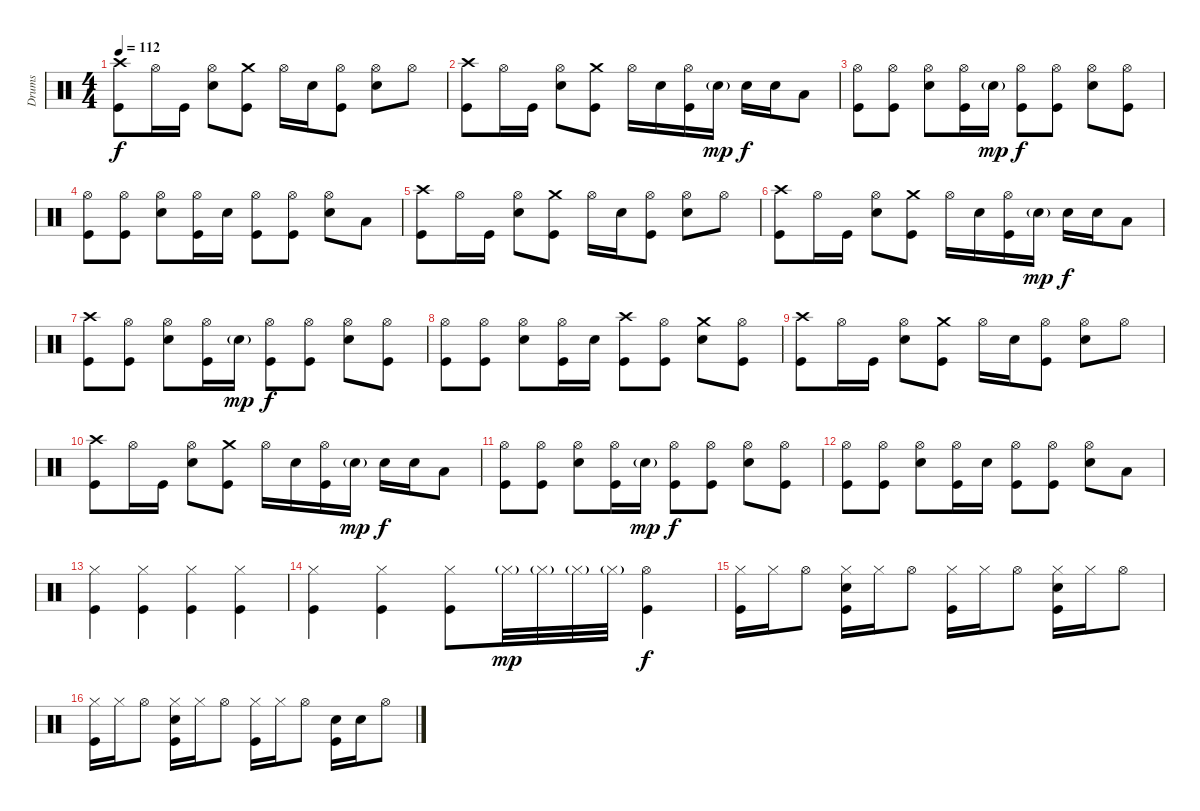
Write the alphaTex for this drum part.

\track ("Drums" "Drums") {instrument percussion}
\staff {score}
\articulation defaults
\ts (4 4)
\tempo 112
\clef neutral
\ks c
("Crash high (hit)" "Kick (hit)").8{dy f} "Hi-Hat (open)".16 "Kick (hit)".16 ("Hi-Hat (open)" "Electric Snare (hit)").8 ("Crash medium (hit)" "Kick (hit)").8 "Hi-Hat (open)".16 "Electric Snare (hit)".16 ("Hi-Hat (open)" "Kick (hit)").8 ("Hi-Hat (open)" "Electric Snare (hit)").8 "Hi-Hat (open)".8 |
("Crash high (hit)" "Kick (hit)").8 "Hi-Hat (open)".16 "Kick (hit)".16 ("Hi-Hat (open)" "Electric Snare (hit)").8 ("Crash medium (hit)" "Kick (hit)").8 "Hi-Hat (open)".16 "Electric Snare (hit)".16 ("Hi-Hat (open)" "Kick (hit)").16 "Electric Snare (hit)"{g}.16{dy mp} "Electric Snare (hit)".16{dy f} "Electric Snare (hit)".16 "Low Tom (hit)".8 |
("Hi-Hat (open)" "Kick (hit)").8 ("Hi-Hat (open)" "Kick (hit)").8 ("Hi-Hat (open)" "Electric Snare (hit)").8 ("Hi-Hat (open)" "Kick (hit)").16 "Electric Snare (hit)"{g}.16{dy mp} ("Hi-Hat (open)" "Kick (hit)").8{dy f} ("Hi-Hat (open)" "Kick (hit)").8 ("Hi-Hat (open)" "Electric Snare (hit)").8 ("Hi-Hat (open)" "Kick (hit)").8 |
("Hi-Hat (open)" "Kick (hit)").8 ("Hi-Hat (open)" "Kick (hit)").8 ("Hi-Hat (open)" "Electric Snare (hit)").8 ("Hi-Hat (open)" "Kick (hit)").16 "Electric Snare (hit)".16 ("Hi-Hat (open)" "Kick (hit)").8 ("Hi-Hat (open)" "Kick (hit)").8 ("Hi-Hat (open)" "Electric Snare (hit)").8 "Low Tom (hit)".8 |
("Crash high (hit)" "Kick (hit)").8 "Hi-Hat (open)".16 "Kick (hit)".16 ("Hi-Hat (open)" "Electric Snare (hit)").8 ("Crash medium (hit)" "Kick (hit)").8 "Hi-Hat (open)".16 "Electric Snare (hit)".16 ("Hi-Hat (open)" "Kick (hit)").8 ("Hi-Hat (open)" "Electric Snare (hit)").8 "Hi-Hat (open)".8 |
("Crash high (hit)" "Kick (hit)").8 "Hi-Hat (open)".16 "Kick (hit)".16 ("Hi-Hat (open)" "Electric Snare (hit)").8 ("Crash medium (hit)" "Kick (hit)").8 "Hi-Hat (open)".16 "Electric Snare (hit)".16 ("Hi-Hat (open)" "Kick (hit)").16 "Electric Snare (hit)"{g}.16{dy mp} "Electric Snare (hit)".16{dy f} "Electric Snare (hit)".16 "Low Tom (hit)".8 |
("Crash high (hit)" "Kick (hit)").8 ("Hi-Hat (open)" "Kick (hit)").8 ("Hi-Hat (open)" "Electric Snare (hit)").8 ("Hi-Hat (open)" "Kick (hit)").16 "Electric Snare (hit)"{g}.16{dy mp} ("Hi-Hat (open)" "Kick (hit)").8{dy f} ("Hi-Hat (open)" "Kick (hit)").8 ("Hi-Hat (open)" "Electric Snare (hit)").8 ("Hi-Hat (open)" "Kick (hit)").8 |
("Hi-Hat (open)" "Kick (hit)").8 ("Hi-Hat (open)" "Kick (hit)").8 ("Hi-Hat (open)" "Electric Snare (hit)").8 ("Hi-Hat (open)" "Kick (hit)").16 "Electric Snare (hit)".16 ("Crash high (hit)" "Kick (hit)").8 ("Hi-Hat (open)" "Kick (hit)").8 ("Crash medium (hit)" "Electric Snare (hit)").8 ("Hi-Hat (open)" "Kick (hit)").8 |
("Crash high (hit)" "Kick (hit)").8 "Hi-Hat (open)".16 "Kick (hit)".16 ("Hi-Hat (open)" "Electric Snare (hit)").8 ("Crash medium (hit)" "Kick (hit)").8 "Hi-Hat (open)".16 "Electric Snare (hit)".16 ("Hi-Hat (open)" "Kick (hit)").8 ("Hi-Hat (open)" "Electric Snare (hit)").8 "Hi-Hat (open)".8 |
("Crash high (hit)" "Kick (hit)").8 "Hi-Hat (open)".16 "Kick (hit)".16 ("Hi-Hat (open)" "Electric Snare (hit)").8 ("Crash medium (hit)" "Kick (hit)").8 "Hi-Hat (open)".16 "Electric Snare (hit)".16 ("Hi-Hat (open)" "Kick (hit)").16 "Electric Snare (hit)"{g}.16{dy mp} "Electric Snare (hit)".16{dy f} "Electric Snare (hit)".16 "Low Tom (hit)".8 |
("Hi-Hat (open)" "Kick (hit)").8 ("Hi-Hat (open)" "Kick (hit)").8 ("Hi-Hat (open)" "Electric Snare (hit)").8 ("Hi-Hat (open)" "Kick (hit)").16 "Electric Snare (hit)"{g}.16{dy mp} ("Hi-Hat (open)" "Kick (hit)").8{dy f} ("Hi-Hat (open)" "Kick (hit)").8 ("Hi-Hat (open)" "Electric Snare (hit)").8 ("Hi-Hat (open)" "Kick (hit)").8 |
("Hi-Hat (open)" "Kick (hit)").8 ("Hi-Hat (open)" "Kick (hit)").8 ("Hi-Hat (open)" "Electric Snare (hit)").8 ("Hi-Hat (open)" "Kick (hit)").16 "Electric Snare (hit)".16 ("Hi-Hat (open)" "Kick (hit)").8 ("Hi-Hat (open)" "Kick (hit)").8 ("Hi-Hat (open)" "Electric Snare (hit)").8 "Low Tom (hit)".8 |
("Hi-Hat (closed)" "Kick (hit)").4 ("Hi-Hat (closed)" "Kick (hit)").4 ("Hi-Hat (closed)" "Kick (hit)").4 ("Hi-Hat (closed)" "Kick (hit)").4 |
("Hi-Hat (closed)" "Kick (hit)").4 ("Hi-Hat (closed)" "Kick (hit)").4 ("Hi-Hat (closed)" "Kick (hit)").8 "Hi-Hat (closed)"{g}.32{dy mp} "Hi-Hat (closed)"{g}.32 "Hi-Hat (closed)"{g}.32 "Hi-Hat (closed)"{g}.32 ("Hi-Hat (open)" "Kick (hit)").4{dy f} |
("Hi-Hat (closed)" "Kick (hit)").16 "Hi-Hat (closed)".16 "Hi-Hat (open)".8 ("Hi-Hat (closed)" "Electric Snare (hit)" "Kick (hit)").16 "Hi-Hat (closed)".16 "Hi-Hat (open)".8 ("Hi-Hat (closed)" "Kick (hit)").16 "Hi-Hat (closed)".16 "Hi-Hat (open)".8 ("Hi-Hat (closed)" "Electric Snare (hit)" "Kick (hit)").16 "Hi-Hat (closed)".16 "Hi-Hat (open)".8 |
("Hi-Hat (closed)" "Kick (hit)").16 "Hi-Hat (closed)".16 "Hi-Hat (open)".8 ("Hi-Hat (closed)" "Electric Snare (hit)" "Kick (hit)").16 "Hi-Hat (closed)".16 "Hi-Hat (open)".8 ("Hi-Hat (closed)" "Kick (hit)").16 "Hi-Hat (closed)".16 "Hi-Hat (open)".8 ("Electric Snare (hit)" "Kick (hit)").16 "Electric Snare (hit)".16 "Hi-Hat (open)".8
